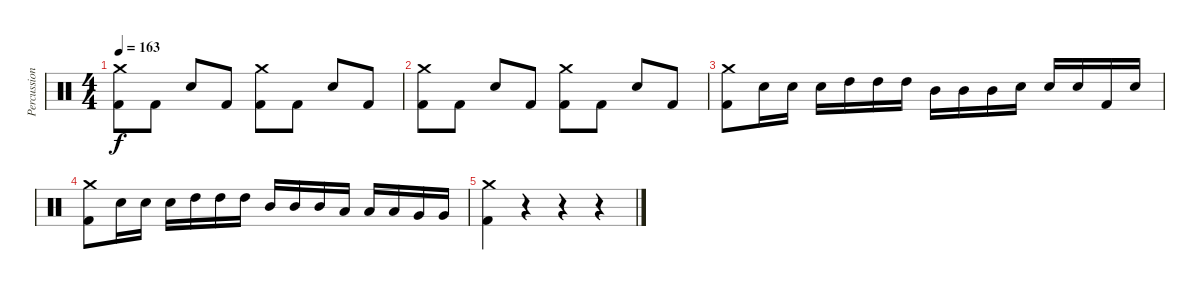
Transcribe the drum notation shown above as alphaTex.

\track ("Percussion" "Percussion") {instrument percussion}
\staff {score}
\articulation defaults
\ts (4 4)
\tempo 163
\clef neutral
\ks c
("Crash medium (hit)" "Kick (hit) 2").8{dy f} "Kick (hit) 2".8 "Electric Snare (hit)".8 "Kick (hit) 2".8 ("Crash medium (hit)" "Kick (hit) 2").8 "Kick (hit) 2".8 "Electric Snare (hit)".8 "Kick (hit) 2".8 |
("Crash medium (hit)" "Kick (hit) 2").8 "Kick (hit) 2".8 "Electric Snare (hit)".8 "Kick (hit) 2".8 ("Crash medium (hit)" "Kick (hit) 2").8 "Kick (hit) 2".8 "Electric Snare (hit)".8 "Kick (hit) 2".8 |
("Crash medium (hit)" "Kick (hit) 2").8 "Electric Snare (hit)".16 "Electric Snare (hit)".16 "Electric Snare (hit)".16 "High Tom (hit)".16 "High Tom (hit)".16 "High Tom (hit)".16 "Mid Tom (hit)".16 "Mid Tom (hit)".16 "Mid Tom (hit)".16 "Electric Snare (hit)".16 "Electric Snare (hit)".16 "Electric Snare (hit)".16 "Kick (hit) 2".16 "Electric Snare (hit)".16 |
("Crash medium (hit)" "Kick (hit) 2").8 "Electric Snare (hit)".16 "Electric Snare (hit)".16 "Electric Snare (hit)".16 "High Tom (hit)".16 "High Tom (hit)".16 "High Tom (hit)".16 "Mid Tom (hit)".16 "Mid Tom (hit)".16 "Mid Tom (hit)".16 "Low Tom (hit)".16 "Low Tom (hit)".16 "Low Tom (hit)".16 "Very Low Tom (hit)".16 "Very Low Tom (hit)".16 |
("Crash medium (hit)" "Kick (hit) 2").4 r.4 r.4 r.4
